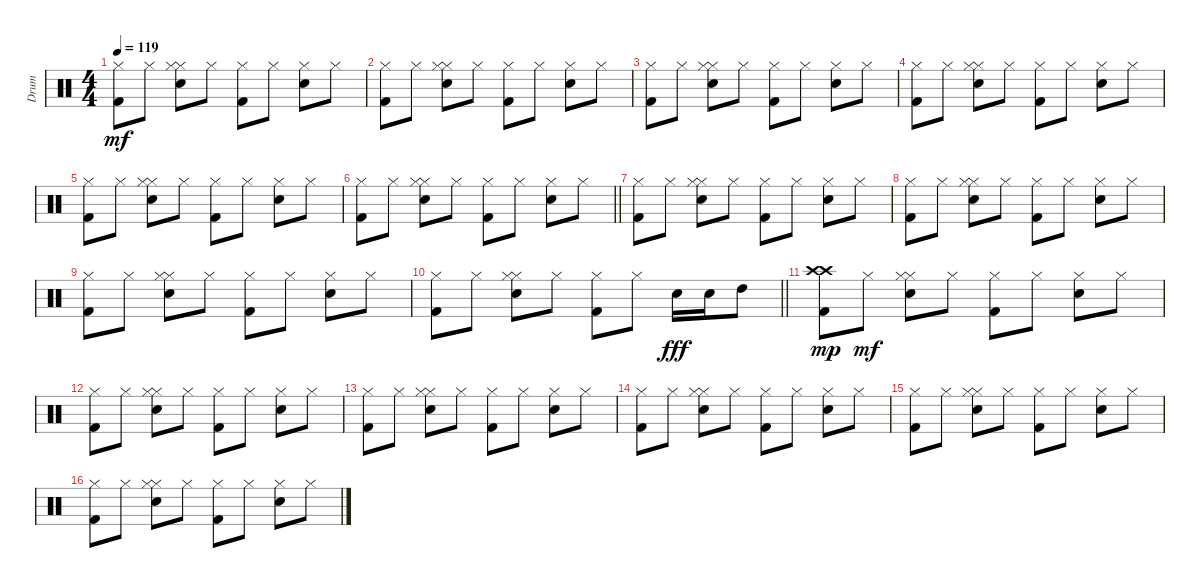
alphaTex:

\track ("Drum " "Drum ") {instrument percussion}
\staff {score}
\articulation defaults
\ts (4 4)
\tempo 119
\clef neutral
\ks c
("Hi-Hat (closed)" "Kick (hit) 2").8{dy mf} "Hi-Hat (closed)".8 ("Hi-Hat (closed)" "Hi-Hat (closed)" "Snare (hit) 2").8 "Hi-Hat (closed)".8 ("Hi-Hat (closed)" "Kick (hit) 2").8 "Hi-Hat (closed)".8 ("Hi-Hat (closed)" "Snare (hit) 2").8 "Hi-Hat (closed)".8 |
("Hi-Hat (closed)" "Kick (hit) 2").8 "Hi-Hat (closed)".8 ("Hi-Hat (closed)" "Hi-Hat (closed)" "Snare (hit) 2").8 "Hi-Hat (closed)".8 ("Hi-Hat (closed)" "Kick (hit) 2").8 "Hi-Hat (closed)".8 ("Hi-Hat (closed)" "Snare (hit) 2").8 "Hi-Hat (closed)".8 |
("Hi-Hat (closed)" "Kick (hit) 2").8 "Hi-Hat (closed)".8 ("Hi-Hat (closed)" "Hi-Hat (closed)" "Snare (hit) 2").8 "Hi-Hat (closed)".8 ("Hi-Hat (closed)" "Kick (hit) 2").8 "Hi-Hat (closed)".8 ("Hi-Hat (closed)" "Snare (hit) 2").8 "Hi-Hat (closed)".8 |
("Hi-Hat (closed)" "Kick (hit) 2").8 "Hi-Hat (closed)".8 ("Hi-Hat (closed)" "Hi-Hat (closed)" "Snare (hit) 2").8 "Hi-Hat (closed)".8 ("Hi-Hat (closed)" "Kick (hit) 2").8 "Hi-Hat (closed)".8 ("Hi-Hat (closed)" "Snare (hit) 2").8 "Hi-Hat (closed)".8 |
("Hi-Hat (closed)" "Kick (hit) 2").8 "Hi-Hat (closed)".8 ("Hi-Hat (closed)" "Hi-Hat (closed)" "Snare (hit) 2").8 "Hi-Hat (closed)".8 ("Hi-Hat (closed)" "Kick (hit) 2").8 "Hi-Hat (closed)".8 ("Hi-Hat (closed)" "Snare (hit) 2").8 "Hi-Hat (closed)".8 |
\barLineRight lightlight
("Hi-Hat (closed)" "Kick (hit) 2").8 "Hi-Hat (closed)".8 ("Hi-Hat (closed)" "Hi-Hat (closed)" "Snare (hit) 2").8 "Hi-Hat (closed)".8 ("Hi-Hat (closed)" "Kick (hit) 2").8 "Hi-Hat (closed)".8 ("Hi-Hat (closed)" "Snare (hit) 2").8 "Hi-Hat (closed)".8 |
("Hi-Hat (closed)" "Kick (hit) 2").8 "Hi-Hat (closed)".8 ("Hi-Hat (closed)" "Hi-Hat (closed)" "Snare (hit) 2").8 "Hi-Hat (closed)".8 ("Hi-Hat (closed)" "Kick (hit) 2").8 "Hi-Hat (closed)".8 ("Hi-Hat (closed)" "Snare (hit) 2").8 "Hi-Hat (closed)".8 |
("Hi-Hat (closed)" "Kick (hit) 2").8 "Hi-Hat (closed)".8 ("Hi-Hat (closed)" "Hi-Hat (closed)" "Snare (hit) 2").8 "Hi-Hat (closed)".8 ("Hi-Hat (closed)" "Kick (hit) 2").8 "Hi-Hat (closed)".8 ("Hi-Hat (closed)" "Snare (hit) 2").8 "Hi-Hat (closed)".8 |
("Hi-Hat (closed)" "Kick (hit) 2").8 "Hi-Hat (closed)".8 ("Hi-Hat (closed)" "Hi-Hat (closed)" "Snare (hit) 2").8 "Hi-Hat (closed)".8 ("Hi-Hat (closed)" "Kick (hit) 2").8 "Hi-Hat (closed)".8 ("Hi-Hat (closed)" "Snare (hit) 2").8 "Hi-Hat (closed)".8 |
\barLineRight lightlight
("Hi-Hat (closed)" "Kick (hit) 2").8 "Hi-Hat (closed)".8 ("Hi-Hat (closed)" "Hi-Hat (closed)" "Snare (hit) 2").8 "Hi-Hat (closed)".8 ("Hi-Hat (closed)" "Kick (hit) 2").8 "Hi-Hat (closed)".8 "Snare (hit) 2".16{dy fff} "Snare (hit) 2".16 "High Tom (hit)".8 |
("Crash high (hit)" "Kick (hit) 2" "Crash high (hit)").8{dy mp} "Hi-Hat (closed)".8{dy mf} ("Hi-Hat (closed)" "Hi-Hat (closed)" "Snare (hit) 2").8 "Hi-Hat (closed)".8 ("Hi-Hat (closed)" "Kick (hit) 2").8 "Hi-Hat (closed)".8 ("Hi-Hat (closed)" "Snare (hit) 2").8 "Hi-Hat (closed)".8 |
("Hi-Hat (closed)" "Kick (hit) 2").8 "Hi-Hat (closed)".8 ("Hi-Hat (closed)" "Hi-Hat (closed)" "Snare (hit) 2").8 "Hi-Hat (closed)".8 ("Hi-Hat (closed)" "Kick (hit) 2").8 "Hi-Hat (closed)".8 ("Hi-Hat (closed)" "Snare (hit) 2").8 "Hi-Hat (closed)".8 |
("Hi-Hat (closed)" "Kick (hit) 2").8 "Hi-Hat (closed)".8 ("Hi-Hat (closed)" "Hi-Hat (closed)" "Snare (hit) 2").8 "Hi-Hat (closed)".8 ("Hi-Hat (closed)" "Kick (hit) 2").8 "Hi-Hat (closed)".8 ("Hi-Hat (closed)" "Snare (hit) 2").8 "Hi-Hat (closed)".8 |
("Hi-Hat (closed)" "Kick (hit) 2").8 "Hi-Hat (closed)".8 ("Hi-Hat (closed)" "Hi-Hat (closed)" "Snare (hit) 2").8 "Hi-Hat (closed)".8 ("Hi-Hat (closed)" "Kick (hit) 2").8 "Hi-Hat (closed)".8 ("Hi-Hat (closed)" "Snare (hit) 2").8 "Hi-Hat (closed)".8 |
("Hi-Hat (closed)" "Kick (hit) 2").8 "Hi-Hat (closed)".8 ("Hi-Hat (closed)" "Hi-Hat (closed)" "Snare (hit) 2").8 "Hi-Hat (closed)".8 ("Hi-Hat (closed)" "Kick (hit) 2").8 "Hi-Hat (closed)".8 ("Hi-Hat (closed)" "Snare (hit) 2").8 "Hi-Hat (closed)".8 |
("Hi-Hat (closed)" "Kick (hit) 2").8 "Hi-Hat (closed)".8 ("Hi-Hat (closed)" "Hi-Hat (closed)" "Snare (hit) 2").8 "Hi-Hat (closed)".8 ("Hi-Hat (closed)" "Kick (hit) 2").8 "Hi-Hat (closed)".8 ("Hi-Hat (closed)" "Snare (hit) 2").8 "Hi-Hat (closed)".8
